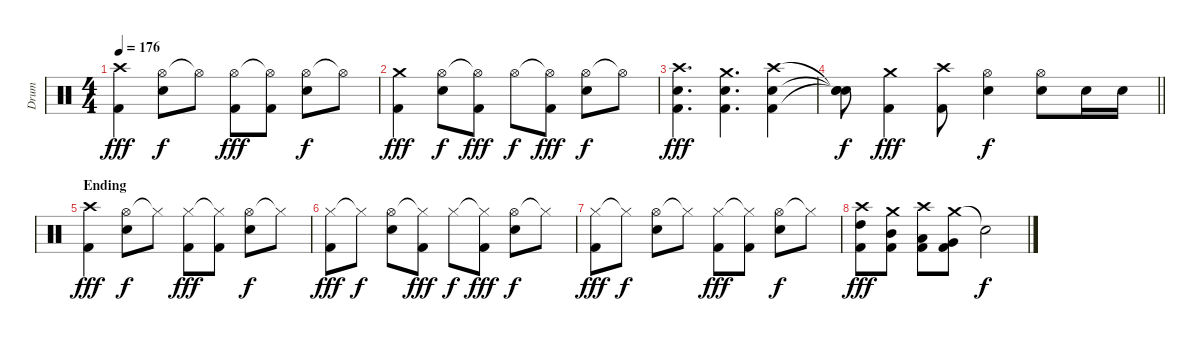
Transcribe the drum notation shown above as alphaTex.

\track ("Drum" "Drum") {instrument percussion}
\staff {score}
\articulation defaults
\ts (4 4)
\tempo 176
\clef neutral
\ks c
("Crash high (hit)" "Kick (hit) 2").4{dy fff} ("Hi-Hat (open)" "Snare (hit) 2").8{dy f} "Hi-Hat (open)"{t}.8 ("Hi-Hat (open)" "Kick (hit) 2").8{dy fff} ("Hi-Hat (open)"{t} "Kick (hit) 2").8 ("Hi-Hat (open)" "Snare (hit) 2").8{dy f} "Hi-Hat (open)"{t}.8 |
("Crash medium (hit)" "Kick (hit) 2").4{dy fff} ("Hi-Hat (open)" "Snare (hit) 2").8{dy f} ("Hi-Hat (open)"{t} "Kick (hit) 2").8{dy fff} "Hi-Hat (open)".8{dy f} ("Hi-Hat (open)"{t} "Kick (hit) 2").8{dy fff} ("Hi-Hat (open)" "Snare (hit) 2").8{dy f} "Hi-Hat (open)"{t}.8 |
("Crash high (hit)" "Snare (hit) 2" "Kick (hit) 2").4{d dy fff} ("Crash medium (hit)" "Snare (hit) 2" "Kick (hit) 2").4{d} ("Crash high (hit)" "Snare (hit) 2" "Kick (hit) 2").4 |
\barLineRight lightlight
("Snare (hit)"{t} "Snare (hit)"{t} "Snare (hit)"{t}).8{dy f} ("Crash medium (hit)" "Kick (hit) 2").4{dy fff} ("Crash high (hit)" "Kick (hit) 2").8 ("Hi-Hat (open)" "Snare (hit) 2").4{dy f} ("Hi-Hat (open)" "Snare (hit) 2").8 "Snare (hit) 2".16 "Snare (hit) 2".16 |
\section ("" "Ending")
("Crash high (hit)" "Kick (hit) 2").4{dy fff} ("Hi-Hat (open)" "Snare (hit) 2").8{dy f} "Hi-Hat (closed)"{t}.8 ("Hi-Hat (closed)" "Kick (hit) 2").8{dy fff} ("Hi-Hat (closed)"{t} "Kick (hit) 2").8 ("Hi-Hat (open)" "Snare (hit) 2").8{dy f} "Hi-Hat (closed)"{t}.8 |
("Hi-Hat (closed)" "Kick (hit) 2").8{dy fff} "Hi-Hat (closed)"{t}.8{dy f} ("Hi-Hat (open)" "Snare (hit) 2").8 ("Hi-Hat (closed)"{t} "Kick (hit) 2").8{dy fff} "Hi-Hat (closed)".8{dy f} ("Hi-Hat (closed)"{t} "Kick (hit) 2").8{dy fff} ("Hi-Hat (open)" "Snare (hit) 2").8{dy f} "Hi-Hat (closed)"{t}.8 |
("Hi-Hat (closed)" "Kick (hit) 2").8{dy fff} "Hi-Hat (closed)"{t}.8{dy f} ("Hi-Hat (open)" "Snare (hit) 2").8 "Hi-Hat (closed)"{t}.8 ("Hi-Hat (closed)" "Kick (hit) 2").8{dy fff} ("Hi-Hat (closed)"{t} "Kick (hit) 2").8 ("Hi-Hat (open)" "Snare (hit) 2").8{dy f} "Hi-Hat (closed)"{t}.8 |
("Crash high (hit)" "High Tom (hit)" "Kick (hit) 2").8{dy fff} ("Crash medium (hit)" "Mid Tom (hit)" "Kick (hit) 2").8 ("Crash high (hit)" "Low Tom (hit)" "Kick (hit) 2").8 ("Crash medium (hit)" "Very Low Tom (hit)" "Kick (hit) 2").8 "Snare (hit)"{t}.2{dy f}
